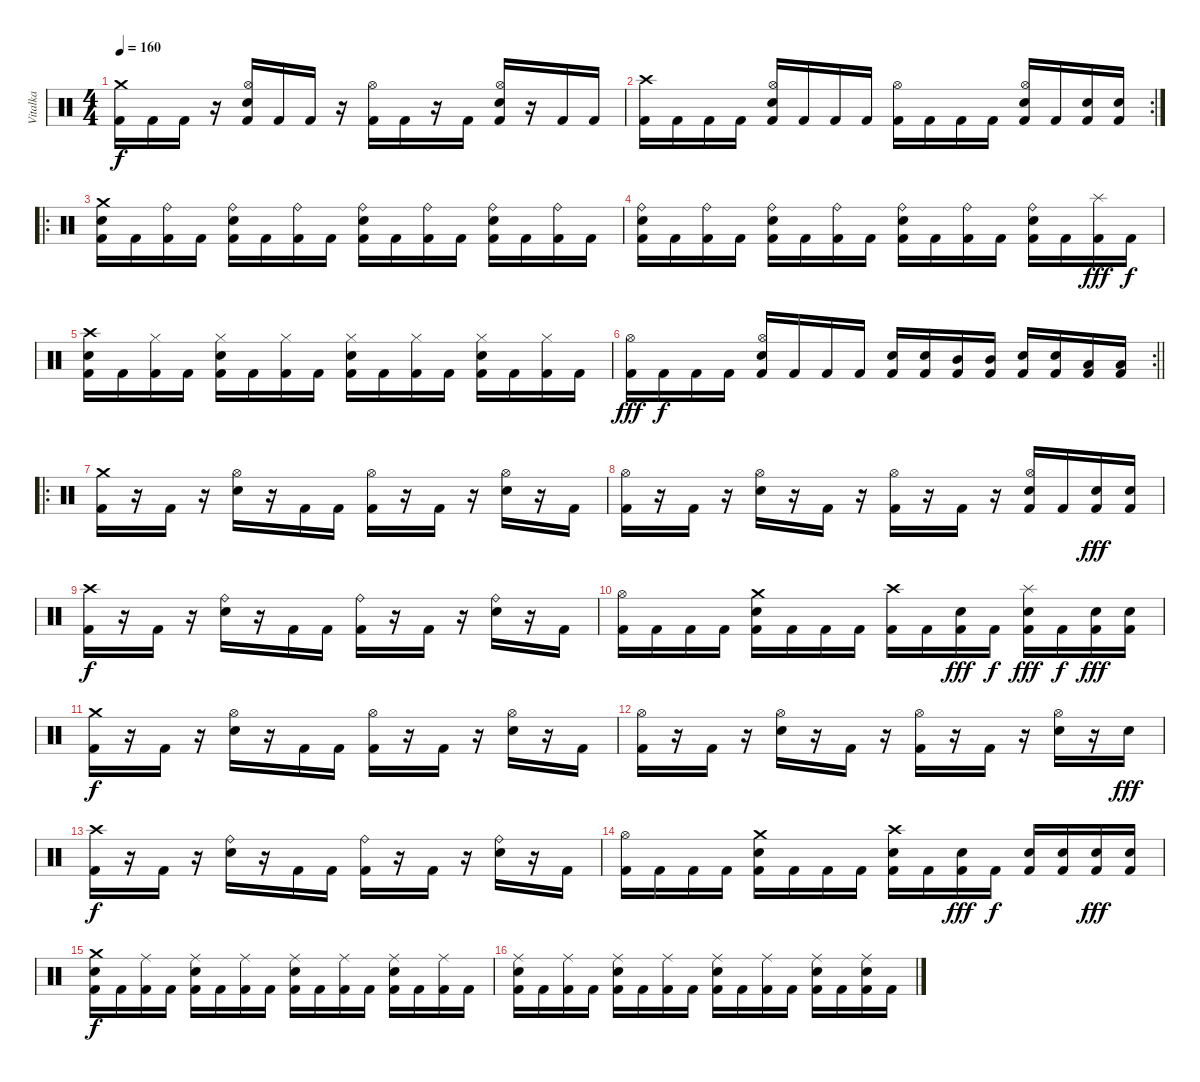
\track ("Vitalka" "Vitalka") {instrument percussion}
\staff {score}
\articulation defaults
\ts (4 4)
\tempo 160
\clef neutral
\ks c
("Crash medium (hit)" "Kick (hit) 2").16{dy f} "Kick (hit) 2".16 "Kick (hit) 2".16 r.16 ("Hi-Hat (open)" "Snare (hit) 2" "Kick (hit) 2").16 "Kick (hit) 2".16 "Kick (hit) 2".16 r.16 ("Hi-Hat (open)" "Kick (hit) 2").16 "Kick (hit) 2".16 r.16 "Kick (hit) 2".16 ("Hi-Hat (open)" "Snare (hit) 2" "Kick (hit) 2").16 r.16 "Kick (hit) 2".16 "Kick (hit) 2".16 |
\rc 2
("Crash high (hit)" "Kick (hit) 2").16 "Kick (hit) 2".16 "Kick (hit) 2".16 "Kick (hit) 2".16 ("Hi-Hat (open)" "Snare (hit) 2" "Kick (hit) 2").16 "Kick (hit) 2".16 "Kick (hit) 2".16 "Kick (hit) 2".16 ("Hi-Hat (open)" "Kick (hit) 2").16 "Kick (hit) 2".16 "Kick (hit) 2".16 "Kick (hit) 2".16 ("Hi-Hat (open)" "Snare (hit) 2" "Kick (hit) 2").16 "Kick (hit) 2".16 ("Snare (hit) 2" "Kick (hit) 2").16 ("Snare (hit) 2" "Kick (hit) 2").16 |
\ro
("Crash medium (hit)" "Snare (hit) 2" "Kick (hit) 2").16 "Kick (hit) 2".16 ("Ride (bell)" "Kick (hit) 2").16 "Kick (hit) 2".16 ("Ride (bell)" "Snare (hit) 2" "Kick (hit) 2").16 "Kick (hit) 2".16 ("Ride (bell)" "Kick (hit) 2").16 "Kick (hit) 2".16 ("Ride (bell)" "Snare (hit) 2" "Kick (hit) 2").16 "Kick (hit) 2".16 ("Ride (bell)" "Kick (hit) 2").16 "Kick (hit) 2".16 ("Ride (bell)" "Snare (hit) 2" "Kick (hit) 2").16 "Kick (hit) 2".16 ("Ride (bell)" "Kick (hit) 2").16 "Kick (hit) 2".16 |
("Ride (bell)" "Snare (hit) 2" "Kick (hit) 2").16 "Kick (hit) 2".16 ("Ride (bell)" "Kick (hit) 2").16 "Kick (hit) 2".16 ("Ride (bell)" "Snare (hit) 2" "Kick (hit) 2").16 "Kick (hit) 2".16 ("Ride (bell)" "Kick (hit) 2").16 "Kick (hit) 2".16 ("Ride (bell)" "Snare (hit) 2" "Kick (hit) 2").16 "Kick (hit) 2".16 ("Ride (bell)" "Kick (hit) 2").16 "Kick (hit) 2".16 ("Ride (bell)" "Snare (hit) 2" "Kick (hit) 2").16 "Kick (hit) 2".16 ("Splash (hit)" "Kick (hit) 2").16{dy fff} "Kick (hit) 2".16{dy f} |
("Crash high (hit)" "Snare (hit) 2" "Kick (hit) 2").16 "Kick (hit) 2".16 ("Hi-Hat (closed)" "Kick (hit) 2").16 "Kick (hit) 2".16 ("Hi-Hat (closed)" "Snare (hit) 2" "Kick (hit) 2").16 "Kick (hit) 2".16 ("Hi-Hat (closed)" "Kick (hit) 2").16 "Kick (hit) 2".16 ("Hi-Hat (closed)" "Snare (hit) 2" "Kick (hit) 2").16 "Kick (hit) 2".16 ("Hi-Hat (closed)" "Kick (hit) 2").16 "Kick (hit) 2".16 ("Hi-Hat (closed)" "Snare (hit) 2" "Kick (hit) 2").16 "Kick (hit) 2".16 ("Hi-Hat (closed)" "Kick (hit) 2").16 "Kick (hit) 2".16 |
\rc 2
\barLineRight lightlight
("Hi-Hat (open)" "Kick (hit) 2").16{dy fff} "Kick (hit) 2".16{dy f} "Kick (hit) 2".16 "Kick (hit) 2".16 ("Hi-Hat (open)" "Snare (hit) 2" "Kick (hit) 2").16 "Kick (hit) 2".16 "Kick (hit) 2".16 "Kick (hit) 2".16 ("Snare (hit) 2" "Kick (hit) 2").16 ("Snare (hit) 2" "Kick (hit) 2").16 ("Mid Tom (hit)" "Kick (hit) 2").16 ("Mid Tom (hit)" "Kick (hit) 2").16 ("Snare (hit) 2" "Kick (hit) 2").16 ("Snare (hit) 2" "Kick (hit) 2").16 ("Low Tom (hit)" "Kick (hit) 2").16 ("Low Tom (hit)" "Kick (hit) 2").16 |
\ro
("Crash medium (hit)" "Kick (hit) 2").16 r.16 "Kick (hit) 2".16 r.16 ("Hi-Hat (open)" "Snare (hit) 2").16 r.16 "Kick (hit) 2".16 "Kick (hit) 2".16 ("Hi-Hat (open)" "Kick (hit) 2").16 r.16 "Kick (hit) 2".16 r.16 ("Hi-Hat (open)" "Snare (hit) 2").16 r.16 "Kick (hit) 2".16 |
("Hi-Hat (open)" "Kick (hit) 2").16 r.16 "Kick (hit) 2".16 r.16 ("Hi-Hat (open)" "Snare (hit) 2").16 r.16 "Kick (hit) 2".16 r.16 ("Hi-Hat (open)" "Kick (hit) 2").16 r.16 "Kick (hit) 2".16 r.16 ("Hi-Hat (open)" "Snare (hit) 2" "Kick (hit) 2").16 "Kick (hit) 2".16 ("Snare (hit) 2" "Kick (hit) 2").16{dy fff} ("Snare (hit) 2" "Kick (hit) 2").16 |
("Crash high (hit)" "Kick (hit) 2").16{dy f} r.16 "Kick (hit) 2".16 r.16 ("Ride (bell)" "Snare (hit) 2").16 r.16 "Kick (hit) 2".16 "Kick (hit) 2".16 ("Ride (bell)" "Kick (hit) 2").16 r.16 "Kick (hit) 2".16 r.16 ("Ride (bell)" "Snare (hit) 2").16 r.16 "Kick (hit) 2".16 |
("Hi-Hat (open)" "Kick (hit) 2").16 "Kick (hit) 2".16 "Kick (hit) 2".16 "Kick (hit) 2".16 ("Crash medium (hit)" "Snare (hit) 2" "Kick (hit) 2").16 "Kick (hit) 2".16 "Kick (hit) 2".16 "Kick (hit) 2".16 ("Crash high (hit)" "Kick (hit) 2").16 "Kick (hit) 2".16 ("Snare (hit) 2" "Kick (hit) 2").16{dy fff} "Kick (hit) 2".16{dy f} ("Splash (hit)" "Snare (hit) 2" "Kick (hit) 2").16{dy fff} "Kick (hit) 2".16{dy f} ("Snare (hit) 2" "Kick (hit) 2").16{dy fff} ("Snare (hit) 2" "Kick (hit) 2").16 |
("Crash medium (hit)" "Kick (hit) 2").16{dy f} r.16 "Kick (hit) 2".16 r.16 ("Hi-Hat (open)" "Snare (hit) 2").16 r.16 "Kick (hit) 2".16 "Kick (hit) 2".16 ("Hi-Hat (open)" "Kick (hit) 2").16 r.16 "Kick (hit) 2".16 r.16 ("Hi-Hat (open)" "Snare (hit) 2").16 r.16 "Kick (hit) 2".16 |
("Hi-Hat (open)" "Kick (hit) 2").16 r.16 "Kick (hit) 2".16 r.16 ("Hi-Hat (open)" "Snare (hit) 2").16 r.16 "Kick (hit) 2".16 r.16 ("Hi-Hat (open)" "Kick (hit) 2").16 r.16 "Kick (hit) 2".16 r.16 ("Hi-Hat (open)" "Snare (hit) 2").16 r.16 "Snare (hit) 2".16{dy fff} |
("Crash high (hit)" "Kick (hit) 2").16{dy f} r.16 "Kick (hit) 2".16 r.16 ("Ride (bell)" "Snare (hit) 2").16 r.16 "Kick (hit) 2".16 "Kick (hit) 2".16 ("Ride (bell)" "Kick (hit) 2").16 r.16 "Kick (hit) 2".16 r.16 ("Ride (bell)" "Snare (hit) 2").16 r.16 "Kick (hit) 2".16 |
("Hi-Hat (open)" "Kick (hit) 2").16 "Kick (hit) 2".16 "Kick (hit) 2".16 "Kick (hit) 2".16 ("Crash medium (hit)" "Snare (hit) 2" "Kick (hit) 2").16 "Kick (hit) 2".16 "Kick (hit) 2".16 "Kick (hit) 2".16 ("Crash high (hit)" "Snare (hit) 2" "Kick (hit) 2").16 "Kick (hit) 2".16 ("Snare (hit) 2" "Kick (hit) 2").16{dy fff} "Kick (hit) 2".16{dy f} ("Snare (hit) 2" "Kick (hit) 2").16 ("Snare (hit) 2" "Kick (hit) 2").16 ("Snare (hit) 2" "Kick (hit) 2").16{dy fff} ("Snare (hit) 2" "Kick (hit) 2").16 |
("Crash medium (hit)" "Snare (hit) 2" "Kick (hit) 2").16{dy f} "Kick (hit) 2".16 ("Ride (middle)" "Kick (hit) 2").16 "Kick (hit) 2".16 ("Ride (middle)" "Snare (hit) 2" "Kick (hit) 2").16 "Kick (hit) 2".16 ("Ride (middle)" "Kick (hit) 2").16 "Kick (hit) 2".16 ("Ride (middle)" "Snare (hit) 2" "Kick (hit) 2").16 "Kick (hit) 2".16 ("Ride (middle)" "Kick (hit) 2").16 "Kick (hit) 2".16 ("Ride (middle)" "Snare (hit) 2" "Kick (hit) 2").16 "Kick (hit) 2".16 ("Ride (middle)" "Kick (hit) 2").16 "Kick (hit) 2".16 |
("Ride (middle)" "Snare (hit) 2" "Kick (hit) 2").16 "Kick (hit) 2".16 ("Ride (middle)" "Kick (hit) 2").16 "Kick (hit) 2".16 ("Ride (middle)" "Snare (hit) 2" "Kick (hit) 2").16 "Kick (hit) 2".16 ("Ride (middle)" "Kick (hit) 2").16 "Kick (hit) 2".16 ("Ride (middle)" "Snare (hit) 2" "Kick (hit) 2").16 "Kick (hit) 2".16 ("Ride (middle)" "Kick (hit) 2").16 "Kick (hit) 2".16 ("Ride (middle)" "Snare (hit) 2" "Kick (hit) 2").16 "Kick (hit) 2".16 ("Ride (middle)" "Snare (hit) 2" "Kick (hit) 2").16 "Kick (hit) 2".16
